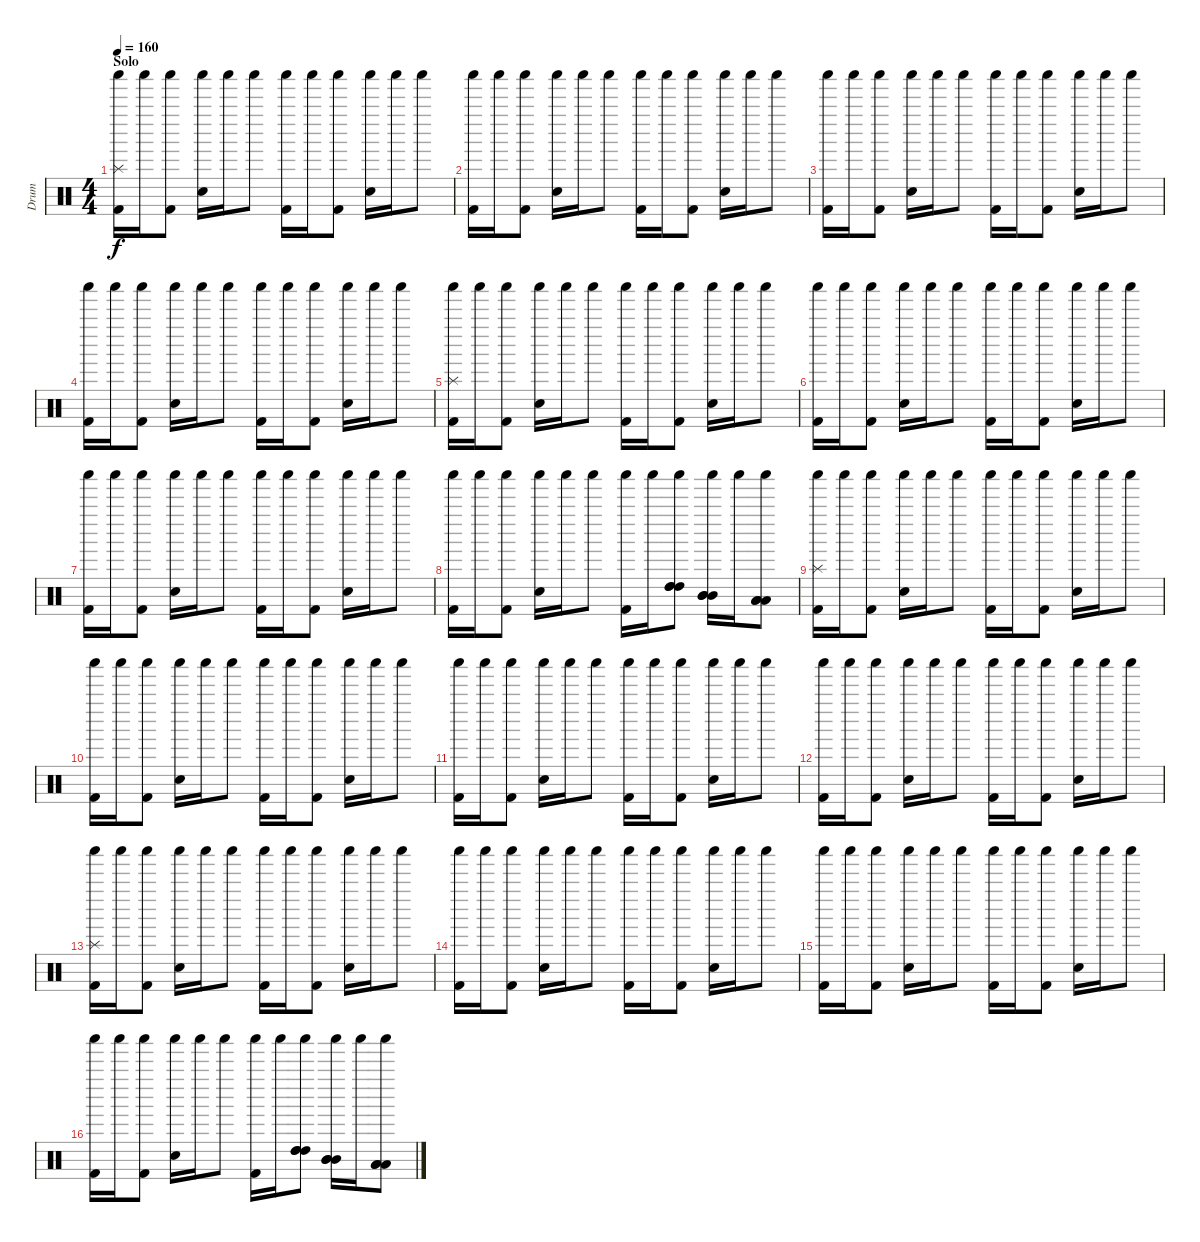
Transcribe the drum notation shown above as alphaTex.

\track ("Drum" "Drum") {instrument percussion}
\staff {score}
\articulation defaults
\ts (4 4)
\section ("" "Solo")
\tempo 160
\clef neutral
\ks c
("Splash (hit)" "Shaker (hit)" "Kick (hit) 2").16{dy f} "Shaker (hit)".16 ("Shaker (hit)" "Kick (hit) 2").8 ("Shaker (hit)" "Snare (hit) 2").16 "Shaker (hit)".16 "Shaker (hit)".8 ("Shaker (hit)" "Kick (hit) 2").16 "Shaker (hit)".16 ("Shaker (hit)" "Kick (hit) 2").8 ("Shaker (hit)" "Snare (hit) 2").16 "Shaker (hit)".16 "Shaker (hit)".8 |
("Shaker (hit)" "Kick (hit) 2").16 "Shaker (hit)".16 ("Shaker (hit)" "Kick (hit) 2").8 ("Shaker (hit)" "Snare (hit) 2").16 "Shaker (hit)".16 "Shaker (hit)".8 ("Shaker (hit)" "Kick (hit) 2").16 "Shaker (hit)".16 ("Shaker (hit)" "Kick (hit) 2").8 ("Shaker (hit)" "Snare (hit) 2").16 "Shaker (hit)".16 "Shaker (hit)".8 |
("Shaker (hit)" "Kick (hit) 2").16 "Shaker (hit)".16 ("Shaker (hit)" "Kick (hit) 2").8 ("Shaker (hit)" "Snare (hit) 2").16 "Shaker (hit)".16 "Shaker (hit)".8 ("Shaker (hit)" "Kick (hit) 2").16 "Shaker (hit)".16 ("Shaker (hit)" "Kick (hit) 2").8 ("Shaker (hit)" "Snare (hit) 2").16 "Shaker (hit)".16 "Shaker (hit)".8 |
("Shaker (hit)" "Kick (hit) 2").16 "Shaker (hit)".16 ("Shaker (hit)" "Kick (hit) 2").8 ("Shaker (hit)" "Snare (hit) 2").16 "Shaker (hit)".16 "Shaker (hit)".8 ("Shaker (hit)" "Kick (hit) 2").16 "Shaker (hit)".16 ("Shaker (hit)" "Kick (hit) 2").8 ("Shaker (hit)" "Snare (hit) 2").16 "Shaker (hit)".16 "Shaker (hit)".8 |
("Splash (hit)" "Shaker (hit)" "Kick (hit) 2").16 "Shaker (hit)".16 ("Shaker (hit)" "Kick (hit) 2").8 ("Shaker (hit)" "Snare (hit) 2").16 "Shaker (hit)".16 "Shaker (hit)".8 ("Shaker (hit)" "Kick (hit) 2").16 "Shaker (hit)".16 ("Shaker (hit)" "Kick (hit) 2").8 ("Shaker (hit)" "Snare (hit) 2").16 "Shaker (hit)".16 "Shaker (hit)".8 |
("Shaker (hit)" "Kick (hit) 2").16 "Shaker (hit)".16 ("Shaker (hit)" "Kick (hit) 2").8 ("Shaker (hit)" "Snare (hit) 2").16 "Shaker (hit)".16 "Shaker (hit)".8 ("Shaker (hit)" "Kick (hit) 2").16 "Shaker (hit)".16 ("Shaker (hit)" "Kick (hit) 2").8 ("Shaker (hit)" "Snare (hit) 2").16 "Shaker (hit)".16 "Shaker (hit)".8 |
("Shaker (hit)" "Kick (hit) 2").16 "Shaker (hit)".16 ("Shaker (hit)" "Kick (hit) 2").8 ("Shaker (hit)" "Snare (hit) 2").16 "Shaker (hit)".16 "Shaker (hit)".8 ("Shaker (hit)" "Kick (hit) 2").16 "Shaker (hit)".16 ("Shaker (hit)" "Kick (hit) 2").8 ("Shaker (hit)" "Snare (hit) 2").16 "Shaker (hit)".16 "Shaker (hit)".8 |
("Shaker (hit)" "Kick (hit) 2").16 "Shaker (hit)".16 ("Shaker (hit)" "Kick (hit) 2").8 ("Shaker (hit)" "Snare (hit) 2").16 "Shaker (hit)".16 "Shaker (hit)".8 ("Shaker (hit)" "Kick (hit) 2").16 "Shaker (hit)".16 ("High Tom (hit)" "High Tom (hit)" "High Tom (hit)" "Shaker (hit)").8 ("Mid Tom (hit)" "Mid Tom (hit)" "Mid Tom (hit)" "Shaker (hit)").16 "Shaker (hit)".16 ("Low Tom (hit)" "Low Tom (hit)" "Low Tom (hit)" "Shaker (hit)").8 |
("Splash (hit)" "Shaker (hit)" "Kick (hit) 2").16 "Shaker (hit)".16 ("Shaker (hit)" "Kick (hit) 2").8 ("Shaker (hit)" "Snare (hit) 2").16 "Shaker (hit)".16 "Shaker (hit)".8 ("Shaker (hit)" "Kick (hit) 2").16 "Shaker (hit)".16 ("Shaker (hit)" "Kick (hit) 2").8 ("Shaker (hit)" "Snare (hit) 2").16 "Shaker (hit)".16 "Shaker (hit)".8 |
("Shaker (hit)" "Kick (hit) 2").16 "Shaker (hit)".16 ("Shaker (hit)" "Kick (hit) 2").8 ("Shaker (hit)" "Snare (hit) 2").16 "Shaker (hit)".16 "Shaker (hit)".8 ("Shaker (hit)" "Kick (hit) 2").16 "Shaker (hit)".16 ("Shaker (hit)" "Kick (hit) 2").8 ("Shaker (hit)" "Snare (hit) 2").16 "Shaker (hit)".16 "Shaker (hit)".8 |
("Shaker (hit)" "Kick (hit) 2").16 "Shaker (hit)".16 ("Shaker (hit)" "Kick (hit) 2").8 ("Shaker (hit)" "Snare (hit) 2").16 "Shaker (hit)".16 "Shaker (hit)".8 ("Shaker (hit)" "Kick (hit) 2").16 "Shaker (hit)".16 ("Shaker (hit)" "Kick (hit) 2").8 ("Shaker (hit)" "Snare (hit) 2").16 "Shaker (hit)".16 "Shaker (hit)".8 |
("Shaker (hit)" "Kick (hit) 2").16 "Shaker (hit)".16 ("Shaker (hit)" "Kick (hit) 2").8 ("Shaker (hit)" "Snare (hit) 2").16 "Shaker (hit)".16 "Shaker (hit)".8 ("Shaker (hit)" "Kick (hit) 2").16 "Shaker (hit)".16 ("Shaker (hit)" "Kick (hit) 2").8 ("Shaker (hit)" "Snare (hit) 2").16 "Shaker (hit)".16 "Shaker (hit)".8 |
("Splash (hit)" "Shaker (hit)" "Kick (hit) 2").16 "Shaker (hit)".16 ("Shaker (hit)" "Kick (hit) 2").8 ("Shaker (hit)" "Snare (hit) 2").16 "Shaker (hit)".16 "Shaker (hit)".8 ("Shaker (hit)" "Kick (hit) 2").16 "Shaker (hit)".16 ("Shaker (hit)" "Kick (hit) 2").8 ("Shaker (hit)" "Snare (hit) 2").16 "Shaker (hit)".16 "Shaker (hit)".8 |
("Shaker (hit)" "Kick (hit) 2").16 "Shaker (hit)".16 ("Shaker (hit)" "Kick (hit) 2").8 ("Shaker (hit)" "Snare (hit) 2").16 "Shaker (hit)".16 "Shaker (hit)".8 ("Shaker (hit)" "Kick (hit) 2").16 "Shaker (hit)".16 ("Shaker (hit)" "Kick (hit) 2").8 ("Shaker (hit)" "Snare (hit) 2").16 "Shaker (hit)".16 "Shaker (hit)".8 |
("Shaker (hit)" "Kick (hit) 2").16 "Shaker (hit)".16 ("Shaker (hit)" "Kick (hit) 2").8 ("Shaker (hit)" "Snare (hit) 2").16 "Shaker (hit)".16 "Shaker (hit)".8 ("Shaker (hit)" "Kick (hit) 2").16 "Shaker (hit)".16 ("Shaker (hit)" "Kick (hit) 2").8 ("Shaker (hit)" "Snare (hit) 2").16 "Shaker (hit)".16 "Shaker (hit)".8 |
("Shaker (hit)" "Kick (hit) 2").16 "Shaker (hit)".16 ("Shaker (hit)" "Kick (hit) 2").8 ("Shaker (hit)" "Snare (hit) 2").16 "Shaker (hit)".16 "Shaker (hit)".8 ("Shaker (hit)" "Kick (hit) 2").16 "Shaker (hit)".16 ("High Tom (hit)" "High Tom (hit)" "High Tom (hit)" "Shaker (hit)").8 ("Mid Tom (hit)" "Mid Tom (hit)" "Mid Tom (hit)" "Shaker (hit)").16 "Shaker (hit)".16 ("Low Tom (hit)" "Low Tom (hit)" "Low Tom (hit)" "Shaker (hit)").8
